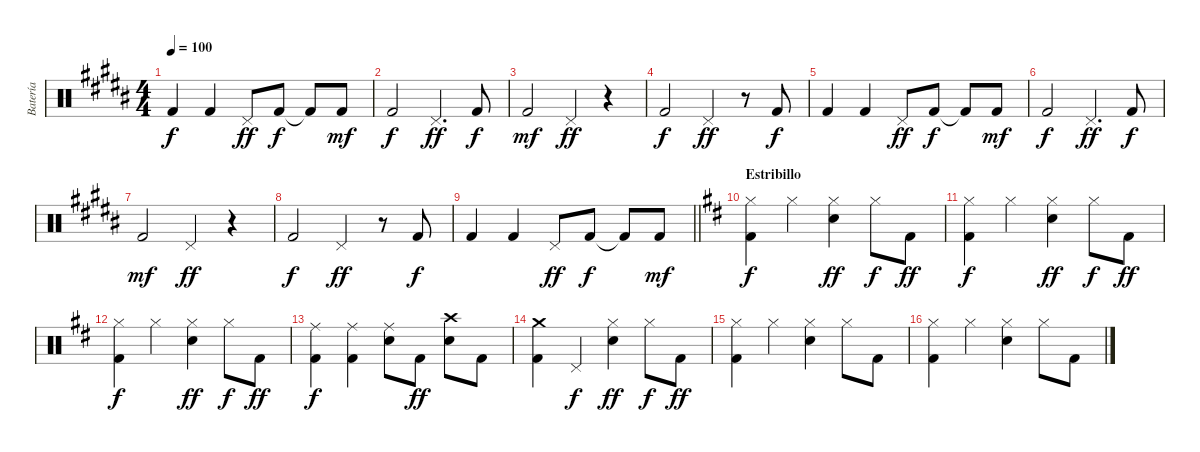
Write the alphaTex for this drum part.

\track ("Batería" "Batería") {instrument percussion}
\staff {score}
\articulation defaults
\ts (4 4)
\tempo 100
\clef neutral
\ks g#minor "Kick (hit) 2".4{dy f} "Kick (hit) 2".4 "Pedal Hi-Hat (hit)".8{dy ff} "Kick (hit) 2".8{dy f} "Kick (hit) 2"{t}.8 "Kick (hit) 2".8{dy mf}
|
"Kick (hit) 2".2{dy f} "Pedal Hi-Hat (hit)".4{d dy ff} "Kick (hit) 2".8{dy f} |
"Kick (hit) 2".2{dy mf} "Pedal Hi-Hat (hit)".4{dy ff} r.4 |
"Kick (hit) 2".2{dy f} "Pedal Hi-Hat (hit)".4{dy ff} r.8 "Kick (hit) 2".8{dy f} |
"Kick (hit) 2".4 "Kick (hit) 2".4 "Pedal Hi-Hat (hit)".8{dy ff} "Kick (hit) 2".8{dy f} "Kick (hit) 2"{t}.8 "Kick (hit) 2".8{dy mf} |
"Kick (hit) 2".2{dy f} "Pedal Hi-Hat (hit)".4{d dy ff} "Kick (hit) 2".8{dy f} |
"Kick (hit) 2".2{dy mf} "Pedal Hi-Hat (hit)".4{dy ff} r.4 |
"Kick (hit) 2".2{dy f} "Pedal Hi-Hat (hit)".4{dy ff} r.8 "Kick (hit) 2".8{dy f} |
\barLineRight lightlight "Kick (hit) 2".4 "Kick (hit) 2".4 "Pedal Hi-Hat (hit)".8{dy ff} "Kick (hit) 2".8{dy f} "Kick (hit) 2"{t}.8 "Kick (hit) 2".8{dy mf}
|
\section ("" "Estribillo")
\ks bminor
("Hi-Hat (closed)" "Kick (hit) 2").4{dy f} "Hi-Hat (closed)".4 ("Hi-Hat (closed)" "Electric Snare (hit)").4{dy ff} "Hi-Hat (closed)".8{dy f} "Kick (hit) 2".8{dy ff} |
("Hi-Hat (closed)" "Kick (hit) 2").4{dy f} "Hi-Hat (closed)".4 ("Hi-Hat (closed)" "Electric Snare (hit)").4{dy ff} "Hi-Hat (closed)".8{dy f} "Kick (hit) 2".8{dy ff} |
("Hi-Hat (closed)" "Kick (hit) 2").4{dy f} "Hi-Hat (closed)".4 ("Hi-Hat (closed)" "Electric Snare (hit)").4{dy ff} "Hi-Hat (closed)".8{dy f} "Kick (hit) 2".8{dy ff} |
("Ride (middle)" "Kick (hit) 2").4{dy f} ("Ride (middle)" "Kick (hit) 2").4 ("Ride (middle)" "Electric Snare (hit)").8 "Kick (hit) 2".8{dy ff} ("Crash high (hit)" "Electric Snare (hit)").8 "Kick (hit) 2".8 |
("Crash medium (hit)" "Kick (hit) 2").4 "Pedal Hi-Hat (hit)".4{dy f} ("Hi-Hat (closed)" "Electric Snare (hit)").4{dy ff} "Hi-Hat (closed)".8{dy f} "Kick (hit) 2".8{dy ff} |
("Hi-Hat (closed)" "Kick (hit) 2").4 "Hi-Hat (closed)".4 ("Hi-Hat (closed)" "Electric Snare (hit)").4 "Hi-Hat (closed)".8 "Kick (hit) 2".8 |
("Hi-Hat (closed)" "Kick (hit) 2").4 "Hi-Hat (closed)".4 ("Hi-Hat (closed)" "Electric Snare (hit)").4 "Hi-Hat (closed)".8 "Kick (hit) 2".8
